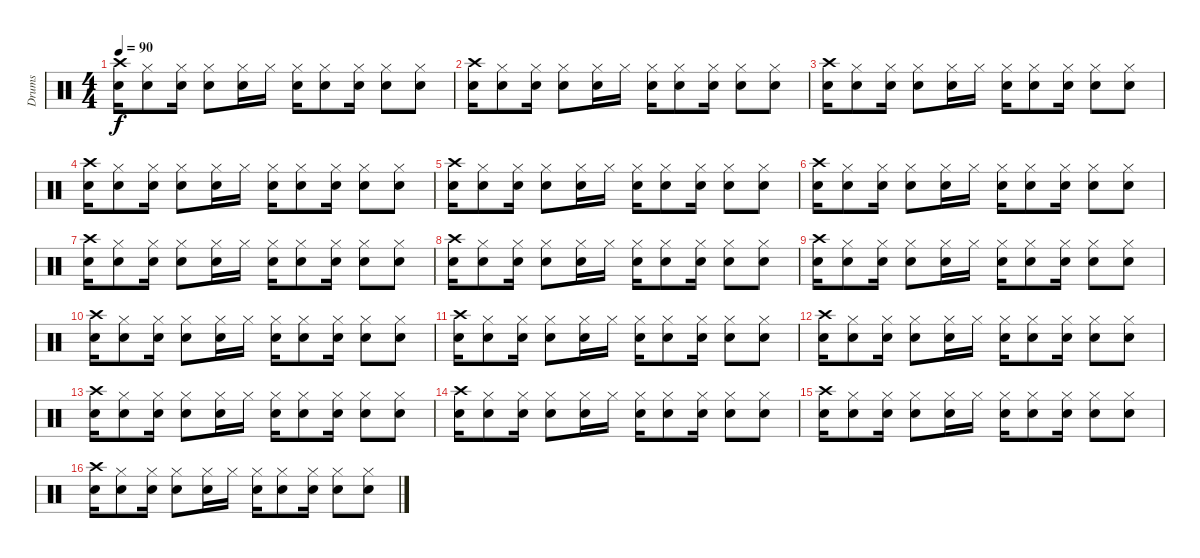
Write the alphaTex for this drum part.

\track ("Drums" "Drums") {instrument percussion}
\staff {score}
\articulation defaults
\ts (4 4)
\tempo 90
\clef neutral
\ks c
("Crash high (hit)" "Snare (hit) 2").16{dy f} ("Hi-Hat (closed)" "Snare (hit) 2").8 ("Hi-Hat (closed)" "Snare (hit) 2").16 ("Hi-Hat (closed)" "Snare (hit) 2").8 ("Hi-Hat (closed)" "Snare (hit) 2").16 "Hi-Hat (closed)".16 ("Hi-Hat (closed)" "Snare (hit) 2").16 ("Hi-Hat (closed)" "Snare (hit) 2").8 ("Hi-Hat (closed)" "Snare (hit) 2").16 ("Hi-Hat (closed)" "Snare (hit) 2").8 ("Hi-Hat (closed)" "Snare (hit) 2").8 |
("Crash high (hit)" "Snare (hit) 2").16 ("Hi-Hat (closed)" "Snare (hit) 2").8 ("Hi-Hat (closed)" "Snare (hit) 2").16 ("Hi-Hat (closed)" "Snare (hit) 2").8 ("Hi-Hat (closed)" "Snare (hit) 2").16 "Hi-Hat (closed)".16 ("Hi-Hat (closed)" "Snare (hit) 2").16 ("Hi-Hat (closed)" "Snare (hit) 2").8 ("Hi-Hat (closed)" "Snare (hit) 2").16 ("Hi-Hat (closed)" "Snare (hit) 2").8 ("Hi-Hat (closed)" "Snare (hit) 2").8 |
("Crash high (hit)" "Snare (hit) 2").16 ("Hi-Hat (closed)" "Snare (hit) 2").8 ("Hi-Hat (closed)" "Snare (hit) 2").16 ("Hi-Hat (closed)" "Snare (hit) 2").8 ("Hi-Hat (closed)" "Snare (hit) 2").16 "Hi-Hat (closed)".16 ("Hi-Hat (closed)" "Snare (hit) 2").16 ("Hi-Hat (closed)" "Snare (hit) 2").8 ("Hi-Hat (closed)" "Snare (hit) 2").16 ("Hi-Hat (closed)" "Snare (hit) 2").8 ("Hi-Hat (closed)" "Snare (hit) 2").8 |
("Crash high (hit)" "Snare (hit) 2").16 ("Hi-Hat (closed)" "Snare (hit) 2").8 ("Hi-Hat (closed)" "Snare (hit) 2").16 ("Hi-Hat (closed)" "Snare (hit) 2").8 ("Hi-Hat (closed)" "Snare (hit) 2").16 "Hi-Hat (closed)".16 ("Hi-Hat (closed)" "Snare (hit) 2").16 ("Hi-Hat (closed)" "Snare (hit) 2").8 ("Hi-Hat (closed)" "Snare (hit) 2").16 ("Hi-Hat (closed)" "Snare (hit) 2").8 ("Hi-Hat (closed)" "Snare (hit) 2").8 |
("Crash high (hit)" "Snare (hit) 2").16 ("Hi-Hat (closed)" "Snare (hit) 2").8 ("Hi-Hat (closed)" "Snare (hit) 2").16 ("Hi-Hat (closed)" "Snare (hit) 2").8 ("Hi-Hat (closed)" "Snare (hit) 2").16 "Hi-Hat (closed)".16 ("Hi-Hat (closed)" "Snare (hit) 2").16 ("Hi-Hat (closed)" "Snare (hit) 2").8 ("Hi-Hat (closed)" "Snare (hit) 2").16 ("Hi-Hat (closed)" "Snare (hit) 2").8 ("Hi-Hat (closed)" "Snare (hit) 2").8 |
("Crash high (hit)" "Snare (hit) 2").16 ("Hi-Hat (closed)" "Snare (hit) 2").8 ("Hi-Hat (closed)" "Snare (hit) 2").16 ("Hi-Hat (closed)" "Snare (hit) 2").8 ("Hi-Hat (closed)" "Snare (hit) 2").16 "Hi-Hat (closed)".16 ("Hi-Hat (closed)" "Snare (hit) 2").16 ("Hi-Hat (closed)" "Snare (hit) 2").8 ("Hi-Hat (closed)" "Snare (hit) 2").16 ("Hi-Hat (closed)" "Snare (hit) 2").8 ("Hi-Hat (closed)" "Snare (hit) 2").8 |
("Crash high (hit)" "Snare (hit) 2").16 ("Hi-Hat (closed)" "Snare (hit) 2").8 ("Hi-Hat (closed)" "Snare (hit) 2").16 ("Hi-Hat (closed)" "Snare (hit) 2").8 ("Hi-Hat (closed)" "Snare (hit) 2").16 "Hi-Hat (closed)".16 ("Hi-Hat (closed)" "Snare (hit) 2").16 ("Hi-Hat (closed)" "Snare (hit) 2").8 ("Hi-Hat (closed)" "Snare (hit) 2").16 ("Hi-Hat (closed)" "Snare (hit) 2").8 ("Hi-Hat (closed)" "Snare (hit) 2").8 |
("Crash high (hit)" "Snare (hit) 2").16 ("Hi-Hat (closed)" "Snare (hit) 2").8 ("Hi-Hat (closed)" "Snare (hit) 2").16 ("Hi-Hat (closed)" "Snare (hit) 2").8 ("Hi-Hat (closed)" "Snare (hit) 2").16 "Hi-Hat (closed)".16 ("Hi-Hat (closed)" "Snare (hit) 2").16 ("Hi-Hat (closed)" "Snare (hit) 2").8 ("Hi-Hat (closed)" "Snare (hit) 2").16 ("Hi-Hat (closed)" "Snare (hit) 2").8 ("Hi-Hat (closed)" "Snare (hit) 2").8 |
("Crash high (hit)" "Snare (hit) 2").16 ("Hi-Hat (closed)" "Snare (hit) 2").8 ("Hi-Hat (closed)" "Snare (hit) 2").16 ("Hi-Hat (closed)" "Snare (hit) 2").8 ("Hi-Hat (closed)" "Snare (hit) 2").16 "Hi-Hat (closed)".16 ("Hi-Hat (closed)" "Snare (hit) 2").16 ("Hi-Hat (closed)" "Snare (hit) 2").8 ("Hi-Hat (closed)" "Snare (hit) 2").16 ("Hi-Hat (closed)" "Snare (hit) 2").8 ("Hi-Hat (closed)" "Snare (hit) 2").8 |
("Crash high (hit)" "Snare (hit) 2").16 ("Hi-Hat (closed)" "Snare (hit) 2").8 ("Hi-Hat (closed)" "Snare (hit) 2").16 ("Hi-Hat (closed)" "Snare (hit) 2").8 ("Hi-Hat (closed)" "Snare (hit) 2").16 "Hi-Hat (closed)".16 ("Hi-Hat (closed)" "Snare (hit) 2").16 ("Hi-Hat (closed)" "Snare (hit) 2").8 ("Hi-Hat (closed)" "Snare (hit) 2").16 ("Hi-Hat (closed)" "Snare (hit) 2").8 ("Hi-Hat (closed)" "Snare (hit) 2").8 |
("Crash high (hit)" "Snare (hit) 2").16 ("Hi-Hat (closed)" "Snare (hit) 2").8 ("Hi-Hat (closed)" "Snare (hit) 2").16 ("Hi-Hat (closed)" "Snare (hit) 2").8 ("Hi-Hat (closed)" "Snare (hit) 2").16 "Hi-Hat (closed)".16 ("Hi-Hat (closed)" "Snare (hit) 2").16 ("Hi-Hat (closed)" "Snare (hit) 2").8 ("Hi-Hat (closed)" "Snare (hit) 2").16 ("Hi-Hat (closed)" "Snare (hit) 2").8 ("Hi-Hat (closed)" "Snare (hit) 2").8 |
("Crash high (hit)" "Snare (hit) 2").16 ("Hi-Hat (closed)" "Snare (hit) 2").8 ("Hi-Hat (closed)" "Snare (hit) 2").16 ("Hi-Hat (closed)" "Snare (hit) 2").8 ("Hi-Hat (closed)" "Snare (hit) 2").16 "Hi-Hat (closed)".16 ("Hi-Hat (closed)" "Snare (hit) 2").16 ("Hi-Hat (closed)" "Snare (hit) 2").8 ("Hi-Hat (closed)" "Snare (hit) 2").16 ("Hi-Hat (closed)" "Snare (hit) 2").8 ("Hi-Hat (closed)" "Snare (hit) 2").8 |
("Crash high (hit)" "Snare (hit) 2").16 ("Hi-Hat (closed)" "Snare (hit) 2").8 ("Hi-Hat (closed)" "Snare (hit) 2").16 ("Hi-Hat (closed)" "Snare (hit) 2").8 ("Hi-Hat (closed)" "Snare (hit) 2").16 "Hi-Hat (closed)".16 ("Hi-Hat (closed)" "Snare (hit) 2").16 ("Hi-Hat (closed)" "Snare (hit) 2").8 ("Hi-Hat (closed)" "Snare (hit) 2").16 ("Hi-Hat (closed)" "Snare (hit) 2").8 ("Hi-Hat (closed)" "Snare (hit) 2").8 |
("Crash high (hit)" "Snare (hit) 2").16 ("Hi-Hat (closed)" "Snare (hit) 2").8 ("Hi-Hat (closed)" "Snare (hit) 2").16 ("Hi-Hat (closed)" "Snare (hit) 2").8 ("Hi-Hat (closed)" "Snare (hit) 2").16 "Hi-Hat (closed)".16 ("Hi-Hat (closed)" "Snare (hit) 2").16 ("Hi-Hat (closed)" "Snare (hit) 2").8 ("Hi-Hat (closed)" "Snare (hit) 2").16 ("Hi-Hat (closed)" "Snare (hit) 2").8 ("Hi-Hat (closed)" "Snare (hit) 2").8 |
("Crash high (hit)" "Snare (hit) 2").16 ("Hi-Hat (closed)" "Snare (hit) 2").8 ("Hi-Hat (closed)" "Snare (hit) 2").16 ("Hi-Hat (closed)" "Snare (hit) 2").8 ("Hi-Hat (closed)" "Snare (hit) 2").16 "Hi-Hat (closed)".16 ("Hi-Hat (closed)" "Snare (hit) 2").16 ("Hi-Hat (closed)" "Snare (hit) 2").8 ("Hi-Hat (closed)" "Snare (hit) 2").16 ("Hi-Hat (closed)" "Snare (hit) 2").8 ("Hi-Hat (closed)" "Snare (hit) 2").8 |
("Crash high (hit)" "Snare (hit) 2").16 ("Hi-Hat (closed)" "Snare (hit) 2").8 ("Hi-Hat (closed)" "Snare (hit) 2").16 ("Hi-Hat (closed)" "Snare (hit) 2").8 ("Hi-Hat (closed)" "Snare (hit) 2").16 "Hi-Hat (closed)".16 ("Hi-Hat (closed)" "Snare (hit) 2").16 ("Hi-Hat (closed)" "Snare (hit) 2").8 ("Hi-Hat (closed)" "Snare (hit) 2").16 ("Hi-Hat (closed)" "Snare (hit) 2").8 ("Hi-Hat (closed)" "Snare (hit) 2").8
